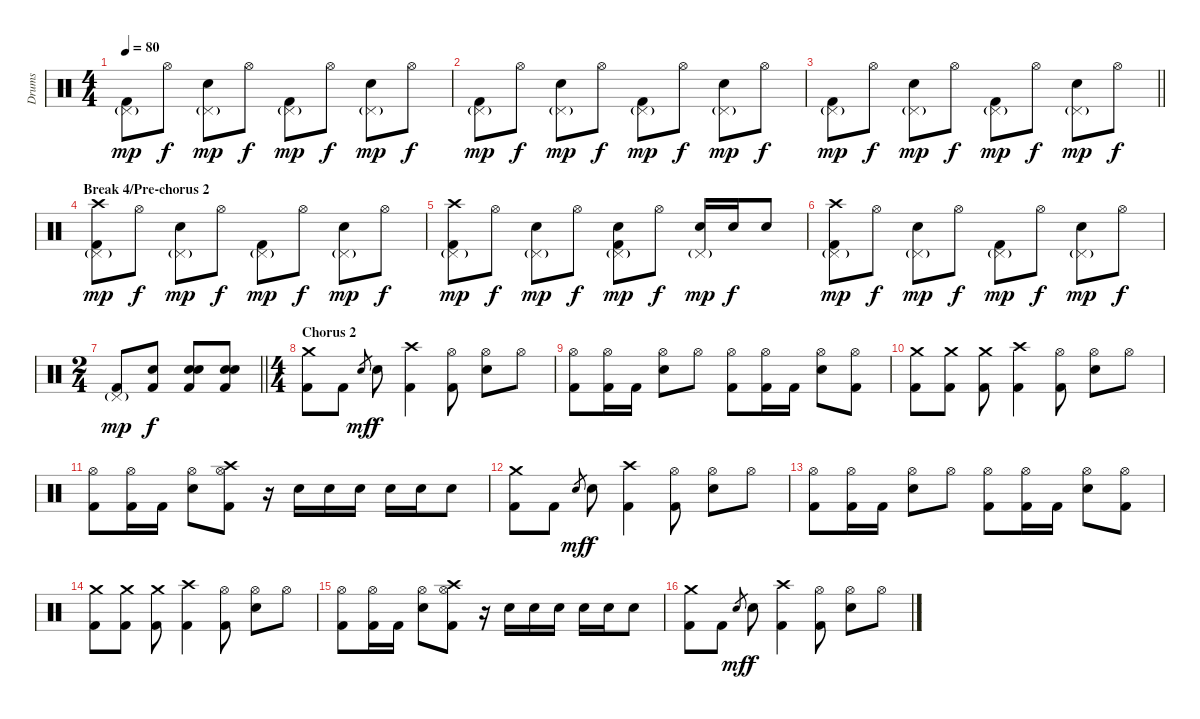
\track ("Drums" "Drums") {solo instrument percussion}
\staff {score}
\articulation defaults
\ts (4 4)
\tempo 80
\clef neutral
\ks c
("Pedal Hi-Hat (hit)"{g} "Kick (hit) 2").8{dy mp} "Hi-Hat (open)".8{dy f} ("Pedal Hi-Hat (hit)"{g} "Electric Snare (hit)").8{dy mp} "Hi-Hat (open)".8{dy f} ("Pedal Hi-Hat (hit)"{g} "Kick (hit) 2").8{dy mp} "Hi-Hat (open)".8{dy f} ("Pedal Hi-Hat (hit)"{g} "Electric Snare (hit)").8{dy mp} "Hi-Hat (open)".8{dy f} |
("Pedal Hi-Hat (hit)"{g} "Kick (hit) 2").8{dy mp} "Hi-Hat (open)".8{dy f} ("Pedal Hi-Hat (hit)"{g} "Electric Snare (hit)").8{dy mp} "Hi-Hat (open)".8{dy f} ("Pedal Hi-Hat (hit)"{g} "Kick (hit) 2").8{dy mp} "Hi-Hat (open)".8{dy f} ("Pedal Hi-Hat (hit)"{g} "Electric Snare (hit)").8{dy mp} "Hi-Hat (open)".8{dy f} |
\barLineRight lightlight
("Pedal Hi-Hat (hit)"{g} "Kick (hit) 2").8{dy mp} "Hi-Hat (open)".8{dy f} ("Pedal Hi-Hat (hit)"{g} "Electric Snare (hit)").8{dy mp} "Hi-Hat (open)".8{dy f} ("Pedal Hi-Hat (hit)"{g} "Kick (hit) 2").8{dy mp} "Hi-Hat (open)".8{dy f} ("Pedal Hi-Hat (hit)"{g} "Electric Snare (hit)").8{dy mp} "Hi-Hat (open)".8{dy f} |
\section ("" "Break 4/Pre-chorus 2")
("Pedal Hi-Hat (hit)"{g} "Crash high (hit)" "Kick (hit) 2").8{dy mp} "Hi-Hat (open)".8{dy f} ("Pedal Hi-Hat (hit)"{g} "Electric Snare (hit)").8{dy mp} "Hi-Hat (open)".8{dy f} ("Pedal Hi-Hat (hit)"{g} "Kick (hit) 2").8{dy mp} "Hi-Hat (open)".8{dy f} ("Pedal Hi-Hat (hit)"{g} "Electric Snare (hit)").8{dy mp} "Hi-Hat (open)".8{dy f} |
("Pedal Hi-Hat (hit)"{g} "Crash high (hit)" "Kick (hit) 2").8{dy mp} "Hi-Hat (open)".8{dy f} ("Pedal Hi-Hat (hit)"{g} "Electric Snare (hit)").8{dy mp} "Hi-Hat (open)".8{dy f} ("Pedal Hi-Hat (hit)"{g} "Electric Snare (hit)" "Kick (hit) 2").8{dy mp} "Hi-Hat (open)".8{dy f} ("Pedal Hi-Hat (hit)"{g} "Electric Snare (hit)").16{dy mp} "Electric Snare (hit)".16{dy f} "Electric Snare (hit)".8 |
("Pedal Hi-Hat (hit)"{g} "Crash high (hit)" "Kick (hit) 2").8{dy mp} "Hi-Hat (open)".8{dy f} ("Pedal Hi-Hat (hit)"{g} "Electric Snare (hit)").8{dy mp} "Hi-Hat (open)".8{dy f} ("Pedal Hi-Hat (hit)"{g} "Kick (hit) 2").8{dy mp} "Hi-Hat (open)".8{dy f} ("Pedal Hi-Hat (hit)"{g} "Electric Snare (hit)").8{dy mp} "Hi-Hat (open)".8{dy f} |
\ts (2 4)
\barLineRight lightlight
("Pedal Hi-Hat (hit)"{g} "Kick (hit) 2").8{dy mp} ("Electric Snare (hit)" "Kick (hit) 2").8{dy f} ("Snare (hit) 2" "Electric Snare (hit)" "Kick (hit) 2").8 ("Snare (hit) 2" "Electric Snare (hit)" "Kick (hit) 2").8 |
\ts (4 4)
\section ("" "Chorus 2")
("Crash medium (hit)" "Kick (hit) 2").8 "Kick (hit) 2".8 "Electric Snare (hit)".8{gr dy mf} "Electric Snare (hit)".8{dy f} ("Crash high (hit)" "Kick (hit) 2").4 ("Hi-Hat (open)" "Kick (hit) 2").8 ("Hi-Hat (open)" "Electric Snare (hit)").8 "Hi-Hat (open)".8 |
("Hi-Hat (open)" "Kick (hit) 2").8 ("Hi-Hat (open)" "Kick (hit) 2").16 "Kick (hit) 2".16 ("Hi-Hat (open)" "Electric Snare (hit)").8 "Hi-Hat (open)".8 ("Hi-Hat (open)" "Kick (hit) 2").8 ("Hi-Hat (open)" "Kick (hit) 2").16 "Kick (hit) 2".16 ("Hi-Hat (open)" "Electric Snare (hit)").8 ("Hi-Hat (open)" "Kick (hit) 2").8 |
("Crash medium (hit)" "Kick (hit) 2").8 ("Crash medium (hit)" "Kick (hit) 2").8 ("Crash medium (hit)" "Kick (hit) 2").8 ("Crash high (hit)" "Kick (hit) 2").4 ("Hi-Hat (open)" "Kick (hit) 2").8 ("Hi-Hat (open)" "Electric Snare (hit)").8 "Hi-Hat (open)".8 |
("Hi-Hat (open)" "Kick (hit) 2").8 ("Hi-Hat (open)" "Kick (hit) 2").16 "Kick (hit) 2".16 ("Hi-Hat (open)" "Electric Snare (hit)").8 ("Hi-Hat (open)" "Crash high (hit)" "Kick (hit) 2").8 r.16 "Electric Snare (hit)".16 "Electric Snare (hit)".16 "Electric Snare (hit)".16 "Electric Snare (hit)".16 "Electric Snare (hit)".16 "Electric Snare (hit)".8 |
("Crash medium (hit)" "Kick (hit) 2").8 "Kick (hit) 2".8 "Electric Snare (hit)".8{gr dy mf} "Electric Snare (hit)".8{dy f} ("Crash high (hit)" "Kick (hit) 2").4 ("Hi-Hat (open)" "Kick (hit) 2").8 ("Hi-Hat (open)" "Electric Snare (hit)").8 "Hi-Hat (open)".8 |
("Hi-Hat (open)" "Kick (hit) 2").8 ("Hi-Hat (open)" "Kick (hit) 2").16 "Kick (hit) 2".16 ("Hi-Hat (open)" "Electric Snare (hit)").8 "Hi-Hat (open)".8 ("Hi-Hat (open)" "Kick (hit) 2").8 ("Hi-Hat (open)" "Kick (hit) 2").16 "Kick (hit) 2".16 ("Hi-Hat (open)" "Electric Snare (hit)").8 ("Hi-Hat (open)" "Kick (hit) 2").8 |
("Crash medium (hit)" "Kick (hit) 2").8 ("Crash medium (hit)" "Kick (hit) 2").8 ("Crash medium (hit)" "Kick (hit) 2").8 ("Crash high (hit)" "Kick (hit) 2").4 ("Hi-Hat (open)" "Kick (hit) 2").8 ("Hi-Hat (open)" "Electric Snare (hit)").8 "Hi-Hat (open)".8 |
("Hi-Hat (open)" "Kick (hit) 2").8 ("Hi-Hat (open)" "Kick (hit) 2").16 "Kick (hit) 2".16 ("Hi-Hat (open)" "Electric Snare (hit)").8 ("Hi-Hat (open)" "Crash high (hit)" "Kick (hit) 2").8 r.16 "Electric Snare (hit)".16 "Electric Snare (hit)".16 "Electric Snare (hit)".16 "Electric Snare (hit)".16 "Electric Snare (hit)".16 "Electric Snare (hit)".8 |
("Crash medium (hit)" "Kick (hit) 2").8 "Kick (hit) 2".8 "Electric Snare (hit)".8{gr dy mf} "Electric Snare (hit)".8{dy f} ("Crash high (hit)" "Kick (hit) 2").4 ("Hi-Hat (open)" "Kick (hit) 2").8 ("Hi-Hat (open)" "Electric Snare (hit)").8 "Hi-Hat (open)".8
